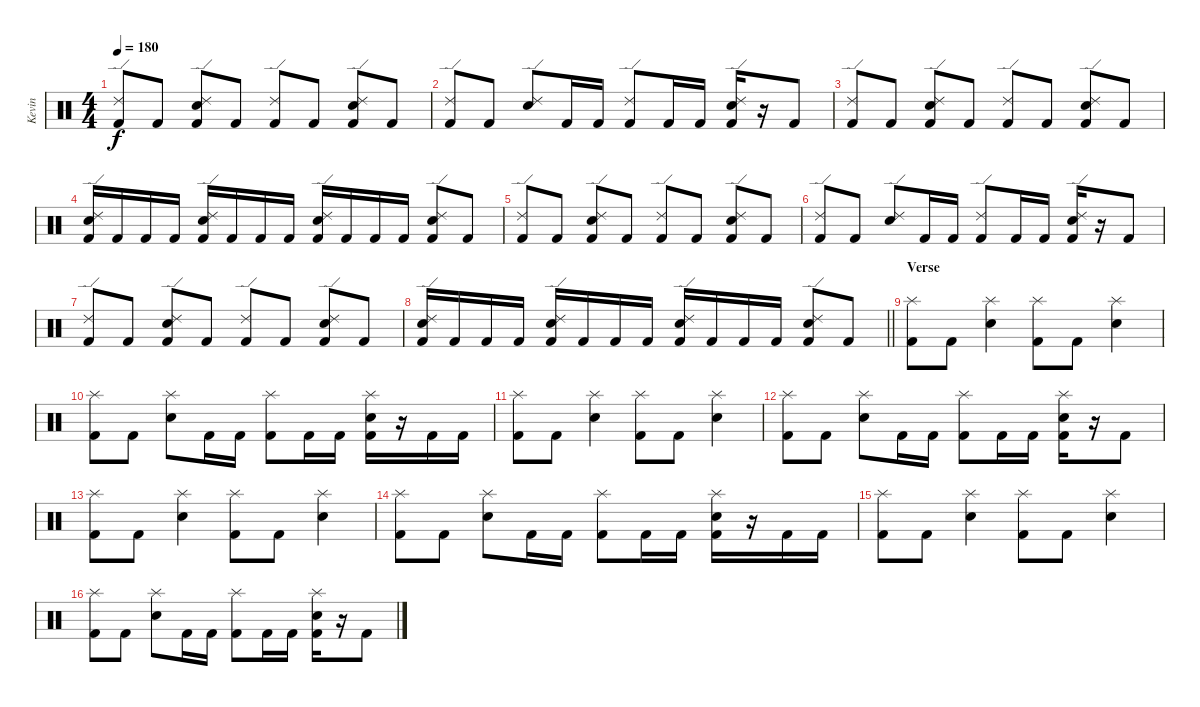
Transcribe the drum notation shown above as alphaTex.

\track ("Kevin" "Kevin") {instrument percussion}
\staff {score}
\articulation defaults
\ts (4 4)
\tempo 180
\clef neutral
\ks c
("Ride (edge) 2" "Kick (hit) 2").8{dy f} "Kick (hit) 2".8 ("Ride (edge) 2" "Electric Snare (hit)" "Kick (hit) 2").8 "Kick (hit) 2".8 ("Ride (edge) 2" "Kick (hit) 2").8 "Kick (hit) 2".8 ("Ride (edge) 2" "Electric Snare (hit)" "Kick (hit) 2").8 "Kick (hit) 2".8 |
("Ride (edge) 2" "Kick (hit) 2").8 "Kick (hit) 2".8 ("Ride (edge) 2" "Electric Snare (hit)").8 "Kick (hit) 2".16 "Kick (hit) 2".16 ("Ride (edge) 2" "Kick (hit) 2").8 "Kick (hit) 2".16 "Kick (hit) 2".16 ("Ride (edge) 2" "Electric Snare (hit)" "Kick (hit) 2").16 r.16 "Kick (hit) 2".8 |
("Ride (edge) 2" "Kick (hit) 2").8 "Kick (hit) 2".8 ("Ride (edge) 2" "Electric Snare (hit)" "Kick (hit) 2").8 "Kick (hit) 2".8 ("Ride (edge) 2" "Kick (hit) 2").8 "Kick (hit) 2".8 ("Ride (edge) 2" "Electric Snare (hit)" "Kick (hit) 2").8 "Kick (hit) 2".8 |
("Ride (edge) 2" "Electric Snare (hit)" "Kick (hit) 2").16 "Kick (hit) 2".16 "Kick (hit) 2".16 "Kick (hit) 2".16 ("Ride (edge) 2" "Electric Snare (hit)" "Kick (hit) 2").16 "Kick (hit) 2".16 "Kick (hit) 2".16 "Kick (hit) 2".16 ("Ride (edge) 2" "Electric Snare (hit)" "Kick (hit) 2").16 "Kick (hit) 2".16 "Kick (hit) 2".16 "Kick (hit) 2".16 ("Ride (edge) 2" "Electric Snare (hit)" "Kick (hit) 2").8 "Kick (hit) 2".8 |
("Ride (edge) 2" "Kick (hit) 2").8 "Kick (hit) 2".8 ("Ride (edge) 2" "Electric Snare (hit)" "Kick (hit) 2").8 "Kick (hit) 2".8 ("Ride (edge) 2" "Kick (hit) 2").8 "Kick (hit) 2".8 ("Ride (edge) 2" "Electric Snare (hit)" "Kick (hit) 2").8 "Kick (hit) 2".8 |
("Ride (edge) 2" "Kick (hit) 2").8 "Kick (hit) 2".8 ("Ride (edge) 2" "Electric Snare (hit)").8 "Kick (hit) 2".16 "Kick (hit) 2".16 ("Ride (edge) 2" "Kick (hit) 2").8 "Kick (hit) 2".16 "Kick (hit) 2".16 ("Ride (edge) 2" "Electric Snare (hit)" "Kick (hit) 2").16 r.16 "Kick (hit) 2".8 |
("Ride (edge) 2" "Kick (hit) 2").8 "Kick (hit) 2".8 ("Ride (edge) 2" "Electric Snare (hit)" "Kick (hit) 2").8 "Kick (hit) 2".8 ("Ride (edge) 2" "Kick (hit) 2").8 "Kick (hit) 2".8 ("Ride (edge) 2" "Electric Snare (hit)" "Kick (hit) 2").8 "Kick (hit) 2".8 |
\barLineRight lightlight
("Ride (edge) 2" "Electric Snare (hit)" "Kick (hit) 2").16 "Kick (hit) 2".16 "Kick (hit) 2".16 "Kick (hit) 2".16 ("Ride (edge) 2" "Electric Snare (hit)" "Kick (hit) 2").16 "Kick (hit) 2".16 "Kick (hit) 2".16 "Kick (hit) 2".16 ("Ride (edge) 2" "Electric Snare (hit)" "Kick (hit) 2").16 "Kick (hit) 2".16 "Kick (hit) 2".16 "Kick (hit) 2".16 ("Ride (edge) 2" "Electric Snare (hit)" "Kick (hit) 2").8 "Kick (hit) 2".8 |
\section ("" "Verse")
("Splash (hit)" "Kick (hit) 2").8 "Kick (hit) 2".8 ("Splash (hit)" "Electric Snare (hit)").4 ("Splash (hit)" "Kick (hit) 2").8 "Kick (hit) 2".8 ("Splash (hit)" "Electric Snare (hit)").4 |
("Splash (hit)" "Kick (hit) 2").8 "Kick (hit) 2".8 ("Splash (hit)" "Electric Snare (hit)").8 "Kick (hit) 2".16 "Kick (hit) 2".16 ("Splash (hit)" "Kick (hit) 2").8 "Kick (hit) 2".16 "Kick (hit) 2".16 ("Splash (hit)" "Electric Snare (hit)" "Kick (hit) 2").16 r.16 "Kick (hit) 2".16 "Kick (hit) 2".16 |
("Splash (hit)" "Kick (hit) 2").8 "Kick (hit) 2".8 ("Splash (hit)" "Electric Snare (hit)").4 ("Splash (hit)" "Kick (hit) 2").8 "Kick (hit) 2".8 ("Splash (hit)" "Electric Snare (hit)").4 |
("Splash (hit)" "Kick (hit) 2").8 "Kick (hit) 2".8 ("Splash (hit)" "Electric Snare (hit)").8 "Kick (hit) 2".16 "Kick (hit) 2".16 ("Splash (hit)" "Kick (hit) 2").8 "Kick (hit) 2".16 "Kick (hit) 2".16 ("Splash (hit)" "Electric Snare (hit)" "Kick (hit) 2").16 r.16 "Kick (hit) 2".8 |
("Splash (hit)" "Kick (hit) 2").8 "Kick (hit) 2".8 ("Splash (hit)" "Electric Snare (hit)").4 ("Splash (hit)" "Kick (hit) 2").8 "Kick (hit) 2".8 ("Splash (hit)" "Electric Snare (hit)").4 |
("Splash (hit)" "Kick (hit) 2").8 "Kick (hit) 2".8 ("Splash (hit)" "Electric Snare (hit)").8 "Kick (hit) 2".16 "Kick (hit) 2".16 ("Splash (hit)" "Kick (hit) 2").8 "Kick (hit) 2".16 "Kick (hit) 2".16 ("Splash (hit)" "Electric Snare (hit)" "Kick (hit) 2").16 r.16 "Kick (hit) 2".16 "Kick (hit) 2".16 |
("Splash (hit)" "Kick (hit) 2").8 "Kick (hit) 2".8 ("Splash (hit)" "Electric Snare (hit)").4 ("Splash (hit)" "Kick (hit) 2").8 "Kick (hit) 2".8 ("Splash (hit)" "Electric Snare (hit)").4 |
("Splash (hit)" "Kick (hit) 2").8 "Kick (hit) 2".8 ("Splash (hit)" "Electric Snare (hit)").8 "Kick (hit) 2".16 "Kick (hit) 2".16 ("Splash (hit)" "Kick (hit) 2").8 "Kick (hit) 2".16 "Kick (hit) 2".16 ("Splash (hit)" "Electric Snare (hit)" "Kick (hit) 2").16 r.16 "Kick (hit) 2".8
